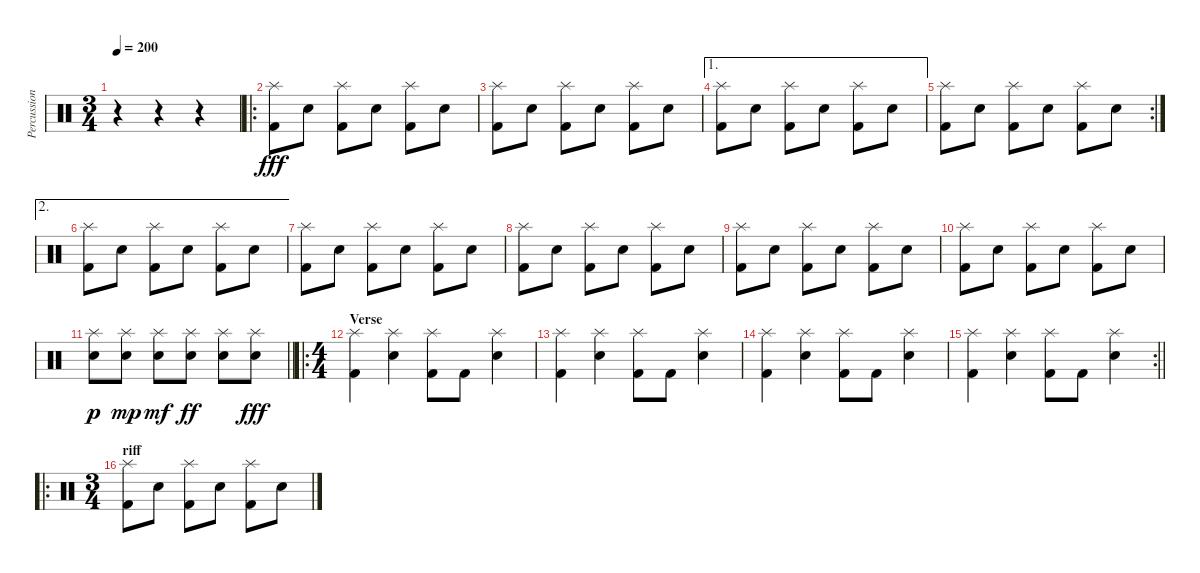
\track ("Percussion" "Percussion") {instrument percussion}
\staff {score}
\articulation defaults
\ts (3 4)
\tempo 200
\clef neutral
\ks c
r.4{dy fff} r.4 r.4 |
\ro
("Splash (hit)" "Kick (hit) 2").8 "Electric Snare (hit)".8 ("Splash (hit)" "Kick (hit) 2").8 "Electric Snare (hit)".8 ("Splash (hit)" "Kick (hit) 2").8 "Electric Snare (hit)".8 |
("Splash (hit)" "Kick (hit) 2").8 "Electric Snare (hit)".8 ("Splash (hit)" "Kick (hit) 2").8 "Electric Snare (hit)".8 ("Splash (hit)" "Kick (hit) 2").8 "Electric Snare (hit)".8 |
\ae 1
("Splash (hit)" "Kick (hit) 2").8 "Electric Snare (hit)".8 ("Splash (hit)" "Kick (hit) 2").8 "Electric Snare (hit)".8 ("Splash (hit)" "Kick (hit) 2").8 "Electric Snare (hit)".8 |
\rc 2
("Splash (hit)" "Kick (hit) 2").8 "Electric Snare (hit)".8 ("Splash (hit)" "Kick (hit) 2").8 "Electric Snare (hit)".8 ("Splash (hit)" "Kick (hit) 2").8 "Electric Snare (hit)".8 |
\ae 2
("Splash (hit)" "Kick (hit) 2").8 "Electric Snare (hit)".8 ("Splash (hit)" "Kick (hit) 2").8 "Electric Snare (hit)".8 ("Splash (hit)" "Kick (hit) 2").8 "Electric Snare (hit)".8 |
("Splash (hit)" "Kick (hit) 2").8 "Electric Snare (hit)".8 ("Splash (hit)" "Kick (hit) 2").8 "Electric Snare (hit)".8 ("Splash (hit)" "Kick (hit) 2").8 "Electric Snare (hit)".8 |
("Splash (hit)" "Kick (hit) 2").8 "Electric Snare (hit)".8 ("Splash (hit)" "Kick (hit) 2").8 "Electric Snare (hit)".8 ("Splash (hit)" "Kick (hit) 2").8 "Electric Snare (hit)".8 |
("Splash (hit)" "Kick (hit) 2").8 "Electric Snare (hit)".8 ("Splash (hit)" "Kick (hit) 2").8 "Electric Snare (hit)".8 ("Splash (hit)" "Kick (hit) 2").8 "Electric Snare (hit)".8 |
("Splash (hit)" "Kick (hit) 2").8 "Electric Snare (hit)".8 ("Splash (hit)" "Kick (hit) 2").8 "Electric Snare (hit)".8 ("Splash (hit)" "Kick (hit) 2").8 "Electric Snare (hit)".8 |
\barLineRight lightlight
("Splash (hit)" "Electric Snare (hit)").8{dy p} ("Splash (hit)" "Electric Snare (hit)").8{dy mp} ("Splash (hit)" "Electric Snare (hit)").8{dy mf} ("Splash (hit)" "Electric Snare (hit)").8{dy ff} ("Splash (hit)" "Electric Snare (hit)").8 ("Splash (hit)" "Electric Snare (hit)").8{dy fff} |
\ro
\ts (4 4)
\section ("" "Verse")
("Splash (hit)" "Kick (hit) 2").4 ("Splash (hit)" "Electric Snare (hit)").4 ("Splash (hit)" "Kick (hit) 2").8 "Kick (hit) 2".8 ("Splash (hit)" "Electric Snare (hit)").4 |
("Splash (hit)" "Kick (hit) 2").4 ("Splash (hit)" "Electric Snare (hit)").4 ("Splash (hit)" "Kick (hit) 2").8 "Kick (hit) 2".8 ("Splash (hit)" "Electric Snare (hit)").4 |
("Splash (hit)" "Kick (hit) 2").4 ("Splash (hit)" "Electric Snare (hit)").4 ("Splash (hit)" "Kick (hit) 2").8 "Kick (hit) 2".8 ("Splash (hit)" "Electric Snare (hit)").4 |
\rc 2
\barLineRight lightlight
("Splash (hit)" "Kick (hit) 2").4 ("Splash (hit)" "Electric Snare (hit)").4 ("Splash (hit)" "Kick (hit) 2").8 "Kick (hit) 2".8 ("Splash (hit)" "Electric Snare (hit)").4 |
\ro
\ts (3 4)
\section ("" "riff")
("Splash (hit)" "Kick (hit) 2").8 "Electric Snare (hit)".8 ("Splash (hit)" "Kick (hit) 2").8 "Electric Snare (hit)".8 ("Splash (hit)" "Kick (hit) 2").8 "Electric Snare (hit)".8
